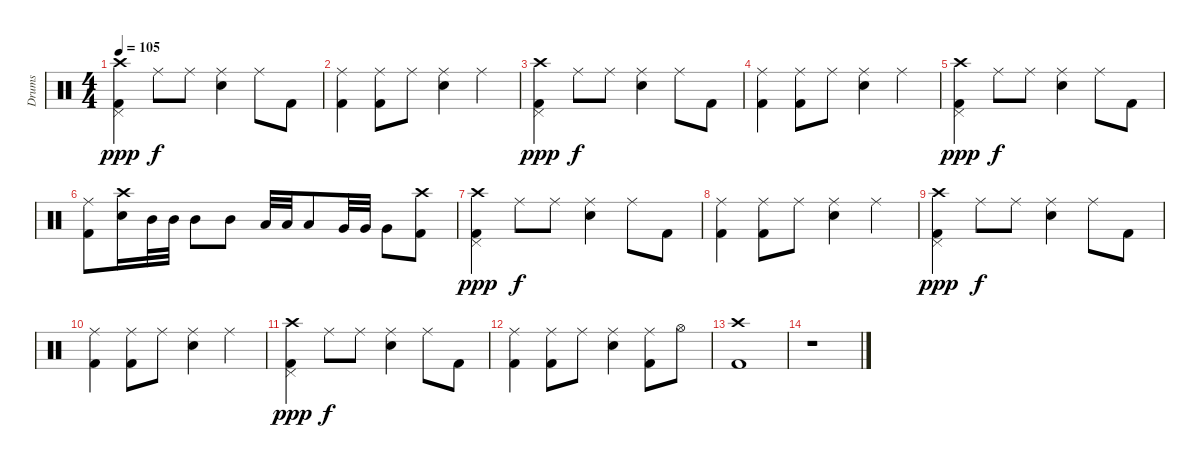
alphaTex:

\track ("Drums" "Drums") {instrument percussion}
\staff {score}
\articulation defaults
\ts (4 4)
\tempo 105
\clef neutral
\ks c
("Crash high (hit)" "Pedal Hi-Hat (hit)" "Kick (hit) 2").4{dy ppp} "Ride (middle)".8{dy f} "Ride (middle)".8 ("Ride (middle)" "Electric Snare (hit)").4 "Ride (middle)".8 "Kick (hit) 2".8 |
("Ride (middle)" "Kick (hit) 2").4 ("Ride (middle)" "Kick (hit) 2").8 "Ride (middle)".8 ("Ride (middle)" "Electric Snare (hit)").4 "Ride (middle)".4 |
("Crash high (hit)" "Pedal Hi-Hat (hit)" "Kick (hit) 2").4{dy ppp} "Ride (middle)".8{dy f} "Ride (middle)".8 ("Ride (middle)" "Electric Snare (hit)").4 "Ride (middle)".8 "Kick (hit) 2".8 |
("Ride (middle)" "Kick (hit) 2").4 ("Ride (middle)" "Kick (hit) 2").8 "Ride (middle)".8 ("Ride (middle)" "Electric Snare (hit)").4 "Ride (middle)".4 |
("Crash high (hit)" "Pedal Hi-Hat (hit)" "Kick (hit) 2").4{dy ppp} "Ride (middle)".8{dy f} "Ride (middle)".8 ("Ride (middle)" "Electric Snare (hit)").4 "Ride (middle)".8 "Kick (hit) 2".8 |
("Ride (middle)" "Kick (hit) 2").8 ("Crash high (hit)" "Electric Snare (hit)").16 "Mid Tom (hit)".32 "Mid Tom (hit)".32 "Mid Tom (hit)".8 "Mid Tom (hit)".8 "Low Tom (hit)".32 "Low Tom (hit)".32 "Low Tom (hit)".8 "Very Low Tom (hit)".32 "Very Low Tom (hit)".32 "Very Low Tom (hit)".8 ("Crash high (hit)" "Kick (hit) 2").8 |
("Crash high (hit)" "Pedal Hi-Hat (hit)" "Kick (hit) 2").4{dy ppp} "Ride (middle)".8{dy f} "Ride (middle)".8 ("Ride (middle)" "Electric Snare (hit)").4 "Ride (middle)".8 "Kick (hit) 2".8 |
("Ride (middle)" "Kick (hit) 2").4 ("Ride (middle)" "Kick (hit) 2").8 "Ride (middle)".8 ("Ride (middle)" "Electric Snare (hit)").4 "Ride (middle)".4 |
("Crash high (hit)" "Pedal Hi-Hat (hit)" "Kick (hit) 2").4{dy ppp} "Ride (middle)".8{dy f} "Ride (middle)".8 ("Ride (middle)" "Electric Snare (hit)").4 "Ride (middle)".8 "Kick (hit) 2".8 |
("Ride (middle)" "Kick (hit) 2").4 ("Ride (middle)" "Kick (hit) 2").8 "Ride (middle)".8 ("Ride (middle)" "Electric Snare (hit)").4 "Ride (middle)".4 |
("Crash high (hit)" "Pedal Hi-Hat (hit)" "Kick (hit) 2").4{dy ppp} "Ride (middle)".8{dy f} "Ride (middle)".8 ("Ride (middle)" "Electric Snare (hit)").4 "Ride (middle)".8 "Kick (hit) 2".8 |
("Ride (middle)" "Kick (hit) 2").4 ("Ride (middle)" "Kick (hit) 2").8 "Ride (middle)".8 ("Ride (middle)" "Electric Snare (hit)").4 ("Ride (middle)" "Kick (hit) 2").8 "Hi-Hat (open)".8 |
("Crash high (hit)" "Kick (hit) 2").1 |
r.1
